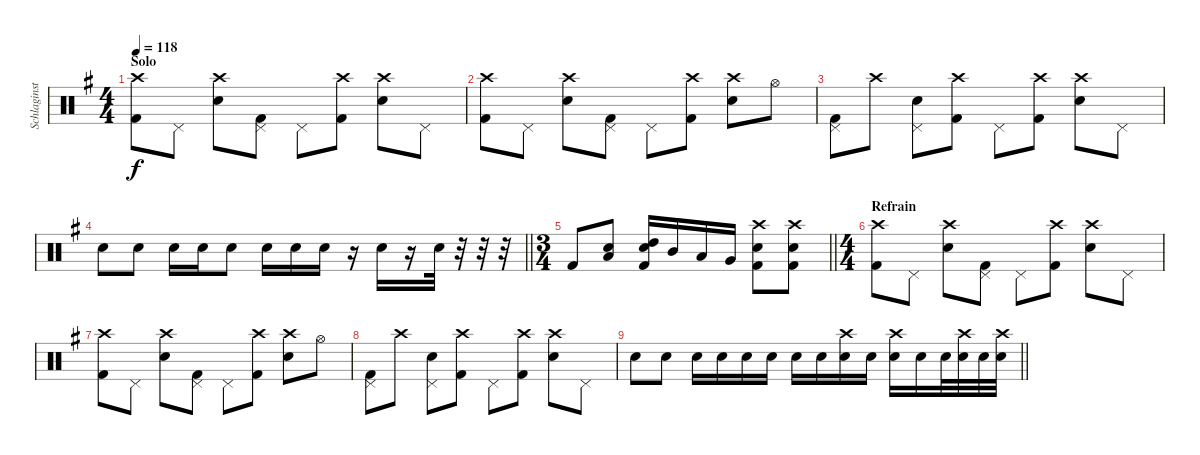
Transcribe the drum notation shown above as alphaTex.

\track ("Schlaginstrumente - Auswahl" "Schlaginst") {instrument percussion}
\staff {score}
\articulation defaults
\ts (4 4)
\section ("" "Solo")
\tempo 118
\clef neutral
\ks g
("Crash high (hit)" "Kick (hit) 2").8{dy f} "Pedal Hi-Hat (hit)".8 ("Crash high (hit)" "Snare (hit) 2").8 ("Pedal Hi-Hat (hit)" "Kick (hit) 2").8 "Pedal Hi-Hat (hit)".8 ("Crash high (hit)" "Kick (hit) 2").8 ("Crash high (hit)" "Snare (hit) 2").8 "Pedal Hi-Hat (hit)".8 |
("Crash high (hit)" "Kick (hit) 2").8 "Pedal Hi-Hat (hit)".8 ("Crash high (hit)" "Snare (hit) 2").8 ("Pedal Hi-Hat (hit)" "Kick (hit) 2").8 "Pedal Hi-Hat (hit)".8 ("Crash high (hit)" "Kick (hit) 2").8 ("Crash high (hit)" "Snare (hit) 2").8 "Hi-Hat (open)".8 |
("Pedal Hi-Hat (hit)" "Kick (hit) 2").8 "Crash high (hit)".8 ("Pedal Hi-Hat (hit)" "Snare (hit) 2").8 ("Crash high (hit)" "Kick (hit) 2").8 "Pedal Hi-Hat (hit)".8 ("Crash high (hit)" "Kick (hit) 2").8 ("Crash high (hit)" "Snare (hit) 2").8 "Pedal Hi-Hat (hit)".8 |
\barLineRight lightlight "Snare (hit) 2".8 "Snare (hit) 2".8 "Snare (hit) 2".16 "Snare (hit) 2".16 "Snare (hit) 2".8 "Snare (hit) 2".16 "Snare (hit) 2".16 "Snare (hit) 2".16
r.16 "Snare (hit) 2".16 r.16 "Snare (hit) 2".32 r.32 r.32 r.32 |
\ts (3 4)
\barLineRight lightlight "Kick (hit) 2".8
("Low Floor Tom (hit)" "Snare (hit) 2").8 ("High Tom (hit)" "Snare (hit) 2" "Kick (hit) 2").16 "Mid Tom (hit)".16 "Low Tom (hit)".16 "Very Low Tom (hit)".16 ("Snare (hit) 2" "Crash high (hit)" "Kick (hit) 2").8 ("Crash high (hit)" "Snare (hit) 2" "Kick (hit) 2").8 |
\ts (4 4)
\section ("" "Refrain")
("Crash high (hit)" "Kick (hit) 2").8 "Pedal Hi-Hat (hit)".8 ("Crash high (hit)" "Snare (hit) 2").8 ("Pedal Hi-Hat (hit)" "Kick (hit) 2").8 "Pedal Hi-Hat (hit)".8 ("Crash high (hit)" "Kick (hit) 2").8 ("Crash high (hit)" "Snare (hit) 2").8 "Pedal Hi-Hat (hit)".8 |
("Crash high (hit)" "Kick (hit) 2").8 "Pedal Hi-Hat (hit)".8 ("Crash high (hit)" "Snare (hit) 2").8 ("Pedal Hi-Hat (hit)" "Kick (hit) 2").8 "Pedal Hi-Hat (hit)".8 ("Crash high (hit)" "Kick (hit) 2").8 ("Crash high (hit)" "Snare (hit) 2").8 "Hi-Hat (open)".8 |
("Pedal Hi-Hat (hit)" "Kick (hit) 2").8 "Crash high (hit)".8 ("Pedal Hi-Hat (hit)" "Snare (hit) 2").8 ("Crash high (hit)" "Kick (hit) 2").8 "Pedal Hi-Hat (hit)".8 ("Crash high (hit)" "Kick (hit) 2").8 ("Crash high (hit)" "Snare (hit) 2").8 "Pedal Hi-Hat (hit)".8 |
\barLineRight lightlight "Snare (hit) 2".8 "Snare (hit) 2".8 "Snare (hit) 2".16 "Snare (hit) 2".16 "Snare (hit) 2".16 "Snare (hit) 2".16 "Snare (hit) 2".16 "Snare (hit) 2".16
("Crash high (hit)" "Snare (hit) 2").16 "Snare (hit) 2".16 ("Crash high (hit)" "Snare (hit) 2").16 "Snare (hit) 2".16 "Snare (hit) 2".32 ("Crash high (hit)" "Snare (hit) 2").32 "Snare (hit) 2".32 ("Crash high (hit)" "Snare (hit) 2").32
